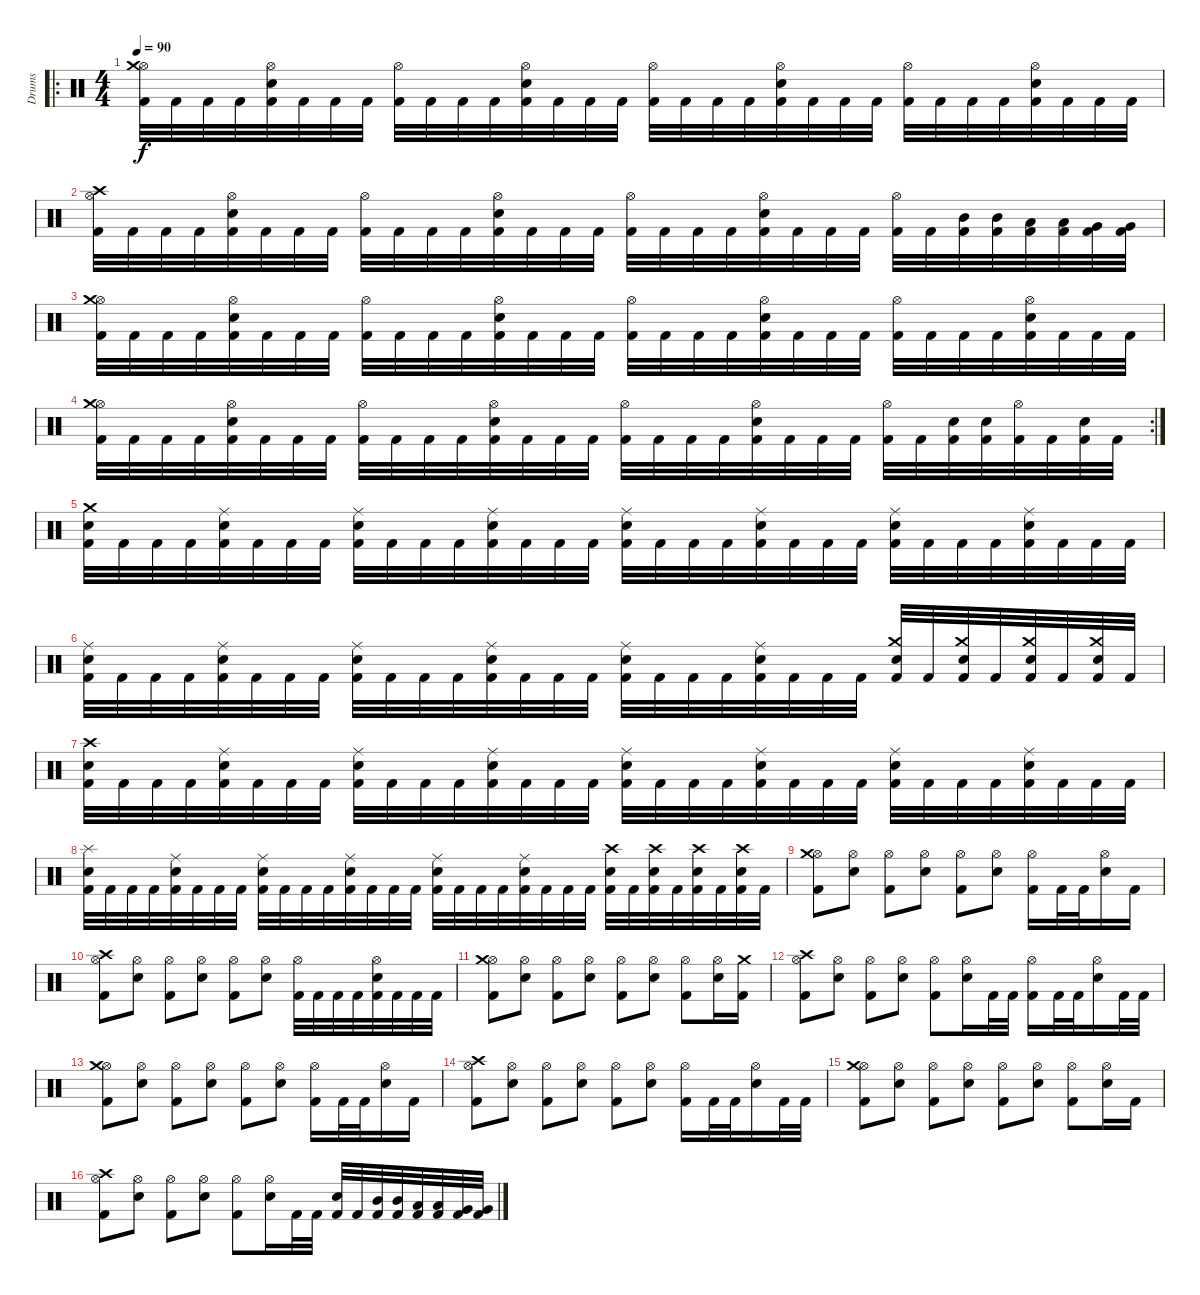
\track ("Drums" "Drums") {instrument percussion}
\staff {score}
\articulation defaults
\ro
\ts (4 4)
\tempo 90
\clef neutral
\ks c
("Kick (hit) 2" "Hi-Hat (open)" "Crash medium (hit)").32{dy f} "Kick (hit) 2".32 "Kick (hit) 2".32 "Kick (hit) 2".32 ("Kick (hit) 2" "Electric Snare (hit)" "Hi-Hat (open)").32 "Kick (hit) 2".32 "Kick (hit) 2".32 "Kick (hit) 2".32 ("Kick (hit) 2" "Hi-Hat (open)").32 "Kick (hit) 2".32 "Kick (hit) 2".32 "Kick (hit) 2".32 ("Kick (hit) 2" "Electric Snare (hit)" "Hi-Hat (open)").32 "Kick (hit) 2".32 "Kick (hit) 2".32 "Kick (hit) 2".32 ("Kick (hit) 2" "Hi-Hat (open)").32 "Kick (hit) 2".32 "Kick (hit) 2".32 "Kick (hit) 2".32 ("Kick (hit) 2" "Electric Snare (hit)" "Hi-Hat (open)").32 "Kick (hit) 2".32 "Kick (hit) 2".32 "Kick (hit) 2".32 ("Kick (hit) 2" "Hi-Hat (open)").32 "Kick (hit) 2".32 "Kick (hit) 2".32 "Kick (hit) 2".32 ("Kick (hit) 2" "Electric Snare (hit)" "Hi-Hat (open)").32 "Kick (hit) 2".32 "Kick (hit) 2".32 "Kick (hit) 2".32 |
("Kick (hit) 2" "Hi-Hat (open)" "Crash high (hit)").32 "Kick (hit) 2".32 "Kick (hit) 2".32 "Kick (hit) 2".32 ("Kick (hit) 2" "Electric Snare (hit)" "Hi-Hat (open)").32 "Kick (hit) 2".32 "Kick (hit) 2".32 "Kick (hit) 2".32 ("Kick (hit) 2" "Hi-Hat (open)").32 "Kick (hit) 2".32 "Kick (hit) 2".32 "Kick (hit) 2".32 ("Kick (hit) 2" "Electric Snare (hit)" "Hi-Hat (open)").32 "Kick (hit) 2".32 "Kick (hit) 2".32 "Kick (hit) 2".32 ("Kick (hit) 2" "Hi-Hat (open)").32 "Kick (hit) 2".32 "Kick (hit) 2".32 "Kick (hit) 2".32 ("Kick (hit) 2" "Electric Snare (hit)" "Hi-Hat (open)").32 "Kick (hit) 2".32 "Kick (hit) 2".32 "Kick (hit) 2".32 ("Kick (hit) 2" "Hi-Hat (open)").32 "Kick (hit) 2".32 ("Kick (hit) 2" "Mid Tom (hit)").32 ("Kick (hit) 2" "Mid Tom (hit)").32 ("Kick (hit) 2" "Low Tom (hit)").32 ("Kick (hit) 2" "Low Tom (hit)").32 ("Kick (hit) 2" "Very Low Tom (hit)").32 ("Kick (hit) 2" "Very Low Tom (hit)").32 |
("Kick (hit) 2" "Hi-Hat (open)" "Crash medium (hit)").32 "Kick (hit) 2".32 "Kick (hit) 2".32 "Kick (hit) 2".32 ("Kick (hit) 2" "Electric Snare (hit)" "Hi-Hat (open)").32 "Kick (hit) 2".32 "Kick (hit) 2".32 "Kick (hit) 2".32 ("Kick (hit) 2" "Hi-Hat (open)").32 "Kick (hit) 2".32 "Kick (hit) 2".32 "Kick (hit) 2".32 ("Kick (hit) 2" "Electric Snare (hit)" "Hi-Hat (open)").32 "Kick (hit) 2".32 "Kick (hit) 2".32 "Kick (hit) 2".32 ("Kick (hit) 2" "Hi-Hat (open)").32 "Kick (hit) 2".32 "Kick (hit) 2".32 "Kick (hit) 2".32 ("Kick (hit) 2" "Electric Snare (hit)" "Hi-Hat (open)").32 "Kick (hit) 2".32 "Kick (hit) 2".32 "Kick (hit) 2".32 ("Kick (hit) 2" "Hi-Hat (open)").32 "Kick (hit) 2".32 "Kick (hit) 2".32 "Kick (hit) 2".32 ("Kick (hit) 2" "Electric Snare (hit)" "Hi-Hat (open)").32 "Kick (hit) 2".32 "Kick (hit) 2".32 "Kick (hit) 2".32 |
\rc 2
("Kick (hit) 2" "Hi-Hat (open)" "Crash medium (hit)").32 "Kick (hit) 2".32 "Kick (hit) 2".32 "Kick (hit) 2".32 ("Kick (hit) 2" "Electric Snare (hit)" "Hi-Hat (open)").32 "Kick (hit) 2".32 "Kick (hit) 2".32 "Kick (hit) 2".32 ("Kick (hit) 2" "Hi-Hat (open)").32 "Kick (hit) 2".32 "Kick (hit) 2".32 "Kick (hit) 2".32 ("Kick (hit) 2" "Electric Snare (hit)" "Hi-Hat (open)").32 "Kick (hit) 2".32 "Kick (hit) 2".32 "Kick (hit) 2".32 ("Kick (hit) 2" "Hi-Hat (open)").32 "Kick (hit) 2".32 "Kick (hit) 2".32 "Kick (hit) 2".32 ("Kick (hit) 2" "Electric Snare (hit)" "Hi-Hat (open)").32 "Kick (hit) 2".32 "Kick (hit) 2".32 "Kick (hit) 2".32 ("Kick (hit) 2" "Hi-Hat (open)").32 "Kick (hit) 2".32 ("Kick (hit) 2" "Electric Snare (hit)").32 ("Kick (hit) 2" "Electric Snare (hit)").32 ("Kick (hit) 2" "Hi-Hat (open)").32 "Kick (hit) 2".32 ("Kick (hit) 2" "Electric Snare (hit)").32 "Kick (hit) 2".32 |
("Kick (hit) 2" "Electric Snare (hit)" "Crash medium (hit)").32 "Kick (hit) 2".32 "Kick (hit) 2".32 "Kick (hit) 2".32 ("Kick (hit) 2" "Electric Snare (hit)" "Ride (middle)").32 "Kick (hit) 2".32 "Kick (hit) 2".32 "Kick (hit) 2".32 ("Kick (hit) 2" "Electric Snare (hit)" "Ride (middle)").32 "Kick (hit) 2".32 "Kick (hit) 2".32 "Kick (hit) 2".32 ("Kick (hit) 2" "Electric Snare (hit)" "Ride (middle)").32 "Kick (hit) 2".32 "Kick (hit) 2".32 "Kick (hit) 2".32 ("Kick (hit) 2" "Electric Snare (hit)" "Ride (middle)").32 "Kick (hit) 2".32 "Kick (hit) 2".32 "Kick (hit) 2".32 ("Kick (hit) 2" "Electric Snare (hit)" "Ride (middle)").32 "Kick (hit) 2".32 "Kick (hit) 2".32 "Kick (hit) 2".32 ("Kick (hit) 2" "Electric Snare (hit)" "Ride (middle)").32 "Kick (hit) 2".32 "Kick (hit) 2".32 "Kick (hit) 2".32 ("Kick (hit) 2" "Electric Snare (hit)" "Ride (middle)").32 "Kick (hit) 2".32 "Kick (hit) 2".32 "Kick (hit) 2".32 |
("Kick (hit) 2" "Electric Snare (hit)" "Ride (middle)").32 "Kick (hit) 2".32 "Kick (hit) 2".32 "Kick (hit) 2".32 ("Kick (hit) 2" "Electric Snare (hit)" "Ride (middle)").32 "Kick (hit) 2".32 "Kick (hit) 2".32 "Kick (hit) 2".32 ("Kick (hit) 2" "Electric Snare (hit)" "Ride (middle)").32 "Kick (hit) 2".32 "Kick (hit) 2".32 "Kick (hit) 2".32 ("Kick (hit) 2" "Electric Snare (hit)" "Ride (middle)").32 "Kick (hit) 2".32 "Kick (hit) 2".32 "Kick (hit) 2".32 ("Kick (hit) 2" "Electric Snare (hit)" "Ride (middle)").32 "Kick (hit) 2".32 "Kick (hit) 2".32 "Kick (hit) 2".32 ("Kick (hit) 2" "Electric Snare (hit)" "Ride (middle)").32 "Kick (hit) 2".32 "Kick (hit) 2".32 "Kick (hit) 2".32 ("Kick (hit) 2" "Electric Snare (hit)" "Crash medium (hit)").32 "Kick (hit) 2".32 ("Kick (hit) 2" "Electric Snare (hit)" "Crash medium (hit)").32 "Kick (hit) 2".32 ("Kick (hit) 2" "Electric Snare (hit)" "Crash medium (hit)").32 "Kick (hit) 2".32 ("Kick (hit) 2" "Electric Snare (hit)" "Crash medium (hit)").32 "Kick (hit) 2".32 |
("Kick (hit) 2" "Electric Snare (hit)" "Crash high (hit)").32 "Kick (hit) 2".32 "Kick (hit) 2".32 "Kick (hit) 2".32 ("Kick (hit) 2" "Electric Snare (hit)" "Ride (middle)").32 "Kick (hit) 2".32 "Kick (hit) 2".32 "Kick (hit) 2".32 ("Kick (hit) 2" "Electric Snare (hit)" "Ride (middle)").32 "Kick (hit) 2".32 "Kick (hit) 2".32 "Kick (hit) 2".32 ("Kick (hit) 2" "Electric Snare (hit)" "Ride (middle)").32 "Kick (hit) 2".32 "Kick (hit) 2".32 "Kick (hit) 2".32 ("Kick (hit) 2" "Electric Snare (hit)" "Ride (middle)").32 "Kick (hit) 2".32 "Kick (hit) 2".32 "Kick (hit) 2".32 ("Kick (hit) 2" "Electric Snare (hit)" "Ride (middle)").32 "Kick (hit) 2".32 "Kick (hit) 2".32 "Kick (hit) 2".32 ("Kick (hit) 2" "Electric Snare (hit)" "Ride (middle)").32 "Kick (hit) 2".32 "Kick (hit) 2".32 "Kick (hit) 2".32 ("Kick (hit) 2" "Electric Snare (hit)" "Ride (middle)").32 "Kick (hit) 2".32 "Kick (hit) 2".32 "Kick (hit) 2".32 |
("Kick (hit) 2" "Electric Snare (hit)" "Splash (hit)").32 "Kick (hit) 2".32 "Kick (hit) 2".32 "Kick (hit) 2".32 ("Kick (hit) 2" "Electric Snare (hit)" "Ride (middle)").32 "Kick (hit) 2".32 "Kick (hit) 2".32 "Kick (hit) 2".32 ("Kick (hit) 2" "Electric Snare (hit)" "Ride (middle)").32 "Kick (hit) 2".32 "Kick (hit) 2".32 "Kick (hit) 2".32 ("Kick (hit) 2" "Electric Snare (hit)" "Ride (middle)").32 "Kick (hit) 2".32 "Kick (hit) 2".32 "Kick (hit) 2".32 ("Kick (hit) 2" "Electric Snare (hit)" "Ride (middle)").32 "Kick (hit) 2".32 "Kick (hit) 2".32 "Kick (hit) 2".32 ("Kick (hit) 2" "Electric Snare (hit)" "Ride (middle)").32 "Kick (hit) 2".32 "Kick (hit) 2".32 "Kick (hit) 2".32 ("Kick (hit) 2" "Electric Snare (hit)" "Crash high (hit)").32 "Kick (hit) 2".32 ("Kick (hit) 2" "Electric Snare (hit)" "Crash high (hit)").32 "Kick (hit) 2".32 ("Kick (hit) 2" "Electric Snare (hit)" "Crash high (hit)").32 "Kick (hit) 2".32 ("Kick (hit) 2" "Electric Snare (hit)" "Crash high (hit)").32 "Kick (hit) 2".32 |
("Kick (hit) 2" "Hi-Hat (open)" "Crash medium (hit)").8 ("Electric Snare (hit)" "Hi-Hat (open)").8 ("Kick (hit) 2" "Hi-Hat (open)").8 ("Electric Snare (hit)" "Hi-Hat (open)").8 ("Kick (hit) 2" "Hi-Hat (open)").8 ("Electric Snare (hit)" "Hi-Hat (open)").8 ("Kick (hit) 2" "Hi-Hat (open)").16 "Kick (hit) 2".32 "Kick (hit) 2".32 ("Electric Snare (hit)" "Hi-Hat (open)").16 "Kick (hit) 2".16 |
("Kick (hit) 2" "Hi-Hat (open)" "Crash high (hit)").8 ("Electric Snare (hit)" "Hi-Hat (open)").8 ("Kick (hit) 2" "Hi-Hat (open)").8 ("Electric Snare (hit)" "Hi-Hat (open)").8 ("Kick (hit) 2" "Hi-Hat (open)").8 ("Electric Snare (hit)" "Hi-Hat (open)").8 ("Kick (hit) 2" "Hi-Hat (open)").32 "Kick (hit) 2".32 "Kick (hit) 2".32 "Kick (hit) 2".32 ("Kick (hit) 2" "Electric Snare (hit)" "Hi-Hat (open)").32 "Kick (hit) 2".32 "Kick (hit) 2".32 "Kick (hit) 2".32 |
("Kick (hit) 2" "Hi-Hat (open)" "Crash medium (hit)").8 ("Electric Snare (hit)" "Hi-Hat (open)").8 ("Kick (hit) 2" "Hi-Hat (open)").8 ("Electric Snare (hit)" "Hi-Hat (open)").8 ("Kick (hit) 2" "Hi-Hat (open)").8 ("Electric Snare (hit)" "Hi-Hat (open)").8 ("Kick (hit) 2" "Hi-Hat (open)").8 ("Electric Snare (hit)" "Hi-Hat (open)").16 ("Kick (hit) 2" "Crash medium (hit)").16 |
("Kick (hit) 2" "Hi-Hat (open)" "Crash high (hit)").8 ("Electric Snare (hit)" "Hi-Hat (open)").8 ("Kick (hit) 2" "Hi-Hat (open)").8 ("Electric Snare (hit)" "Hi-Hat (open)").8 ("Kick (hit) 2" "Hi-Hat (open)").8 ("Electric Snare (hit)" "Hi-Hat (open)").16 "Kick (hit) 2".32 "Kick (hit) 2".32 ("Kick (hit) 2" "Hi-Hat (open)").16 "Kick (hit) 2".32 "Kick (hit) 2".32 ("Electric Snare (hit)" "Hi-Hat (open)").16 "Kick (hit) 2".32 "Kick (hit) 2".32 |
("Kick (hit) 2" "Hi-Hat (open)" "Crash medium (hit)").8 ("Electric Snare (hit)" "Hi-Hat (open)").8 ("Kick (hit) 2" "Hi-Hat (open)").8 ("Electric Snare (hit)" "Hi-Hat (open)").8 ("Kick (hit) 2" "Hi-Hat (open)").8 ("Electric Snare (hit)" "Hi-Hat (open)").8 ("Kick (hit) 2" "Hi-Hat (open)").16 "Kick (hit) 2".32 "Kick (hit) 2".32 ("Electric Snare (hit)" "Hi-Hat (open)").16 "Kick (hit) 2".16 |
("Kick (hit) 2" "Hi-Hat (open)" "Crash high (hit)").8 ("Electric Snare (hit)" "Hi-Hat (open)").8 ("Kick (hit) 2" "Hi-Hat (open)").8 ("Electric Snare (hit)" "Hi-Hat (open)").8 ("Kick (hit) 2" "Hi-Hat (open)").8 ("Electric Snare (hit)" "Hi-Hat (open)").8 ("Kick (hit) 2" "Hi-Hat (open)").16 "Kick (hit) 2".32 "Kick (hit) 2".32 ("Electric Snare (hit)" "Hi-Hat (open)").16 "Kick (hit) 2".32 "Kick (hit) 2".32 |
("Kick (hit) 2" "Hi-Hat (open)" "Crash medium (hit)").8 ("Electric Snare (hit)" "Hi-Hat (open)").8 ("Kick (hit) 2" "Hi-Hat (open)").8 ("Electric Snare (hit)" "Hi-Hat (open)").8 ("Kick (hit) 2" "Hi-Hat (open)").8 ("Electric Snare (hit)" "Hi-Hat (open)").8 ("Kick (hit) 2" "Hi-Hat (open)").8 ("Electric Snare (hit)" "Hi-Hat (open)").16 "Kick (hit) 2".16 |
("Kick (hit) 2" "Hi-Hat (open)" "Crash high (hit)").8 ("Electric Snare (hit)" "Hi-Hat (open)").8 ("Kick (hit) 2" "Hi-Hat (open)").8 ("Electric Snare (hit)" "Hi-Hat (open)").8 ("Kick (hit) 2" "Hi-Hat (open)").8 ("Electric Snare (hit)" "Hi-Hat (open)").16 "Kick (hit) 2".32 "Kick (hit) 2".32 ("Kick (hit) 2" "Electric Snare (hit)").32 "Kick (hit) 2".32 ("Kick (hit) 2" "Mid Tom (hit)").32 ("Kick (hit) 2" "Mid Tom (hit)").32 ("Kick (hit) 2" "Low Tom (hit)").32 ("Kick (hit) 2" "Low Tom (hit)").32 ("Kick (hit) 2" "Very Low Tom (hit)").32 ("Kick (hit) 2" "Very Low Tom (hit)").32
